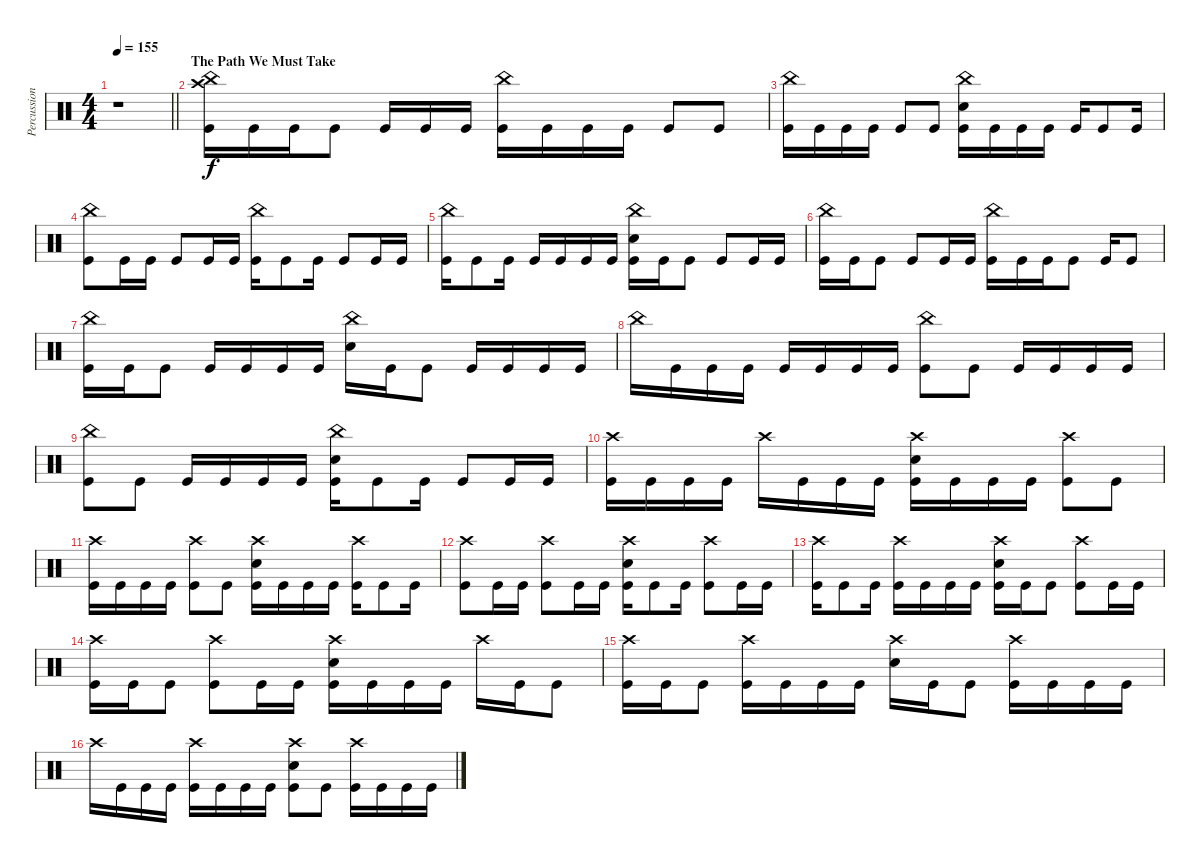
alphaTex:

\track ("Percussion" "Percussion") {instrument percussion}
\staff {score}
\articulation defaults
\ts (4 4)
\tempo 155
\clef neutral
\barLineRight lightlight
\ks c
r.1{dy f} |
\section ("" "The Path We Must Take")
("Crash high (hit)" "China (hit)" "Kick (hit)").16 "Kick (hit)".16 "Kick (hit)".16 "Kick (hit)".8 "Kick (hit)".16 "Kick (hit)".16 "Kick (hit)".16 ("China (hit)" "Kick (hit)").16 "Kick (hit)".16 "Kick (hit)".16 "Kick (hit)".16 "Kick (hit)".8 "Kick (hit)".8 |
("China (hit)" "Kick (hit)").16 "Kick (hit)".16 "Kick (hit)".16 "Kick (hit)".16 "Kick (hit)".8 "Kick (hit)".8 ("China (hit)" "Electric Snare (hit)" "Kick (hit)").16 "Kick (hit)".16 "Kick (hit)".16 "Kick (hit)".16 "Kick (hit)".16 "Kick (hit)".8 "Kick (hit)".16 |
("China (hit)" "Kick (hit)").8 "Kick (hit)".16 "Kick (hit)".16 "Kick (hit)".8 "Kick (hit)".16 "Kick (hit)".16 ("China (hit)" "Kick (hit)").16 "Kick (hit)".8 "Kick (hit)".16 "Kick (hit)".8 "Kick (hit)".16 "Kick (hit)".16 |
("China (hit)" "Kick (hit)").16 "Kick (hit)".8 "Kick (hit)".16 "Kick (hit)".16 "Kick (hit)".16 "Kick (hit)".16 "Kick (hit)".16 ("China (hit)" "Electric Snare (hit)" "Kick (hit)").16 "Kick (hit)".16 "Kick (hit)".8 "Kick (hit)".8 "Kick (hit)".16 "Kick (hit)".16 |
("China (hit)" "Kick (hit)").16 "Kick (hit)".16 "Kick (hit)".8 "Kick (hit)".8 "Kick (hit)".16 "Kick (hit)".16 ("China (hit)" "Kick (hit)").16 "Kick (hit)".16 "Kick (hit)".16 "Kick (hit)".8 "Kick (hit)".16 "Kick (hit)".8 |
("China (hit)" "Kick (hit)").16 "Kick (hit)".16 "Kick (hit)".8 "Kick (hit)".16 "Kick (hit)".16 "Kick (hit)".16 "Kick (hit)".16 ("China (hit)" "Electric Snare (hit)").16 "Kick (hit)".16 "Kick (hit)".8 "Kick (hit)".16 "Kick (hit)".16 "Kick (hit)".16 "Kick (hit)".16 |
"China (hit)".16 "Kick (hit)".16 "Kick (hit)".16 "Kick (hit)".16 "Kick (hit)".16 "Kick (hit)".16 "Kick (hit)".16 "Kick (hit)".16 ("China (hit)" "Kick (hit)").8 "Kick (hit)".8 "Kick (hit)".16 "Kick (hit)".16 "Kick (hit)".16 "Kick (hit)".16 |
("China (hit)" "Kick (hit)").8 "Kick (hit)".8 "Kick (hit)".16 "Kick (hit)".16 "Kick (hit)".16 "Kick (hit)".16 ("China (hit)" "Electric Snare (hit)" "Kick (hit)").16 "Kick (hit)".8 "Kick (hit)".16 "Kick (hit)".8 "Kick (hit)".16 "Kick (hit)".16 |
("Crash high (hit)" "Kick (hit)").16 "Kick (hit)".16 "Kick (hit)".16 "Kick (hit)".16 "Crash high (hit)".16 "Kick (hit)".16 "Kick (hit)".16 "Kick (hit)".16 ("Crash high (hit)" "Electric Snare (hit)" "Kick (hit)").16 "Kick (hit)".16 "Kick (hit)".16 "Kick (hit)".16 ("Crash high (hit)" "Kick (hit)").8 "Kick (hit)".8 |
("Crash high (hit)" "Kick (hit)").16 "Kick (hit)".16 "Kick (hit)".16 "Kick (hit)".16 ("Crash high (hit)" "Kick (hit)").8 "Kick (hit)".8 ("Crash high (hit)" "Electric Snare (hit)" "Kick (hit)").16 "Kick (hit)".16 "Kick (hit)".16 "Kick (hit)".16 ("Crash high (hit)" "Kick (hit)").16 "Kick (hit)".8 "Kick (hit)".16 |
("Crash high (hit)" "Kick (hit)").8 "Kick (hit)".16 "Kick (hit)".16 ("Crash high (hit)" "Kick (hit)").8 "Kick (hit)".16 "Kick (hit)".16 ("Crash high (hit)" "Electric Snare (hit)" "Kick (hit)").16 "Kick (hit)".8 "Kick (hit)".16 ("Crash high (hit)" "Kick (hit)").8 "Kick (hit)".16 "Kick (hit)".16 |
("Crash high (hit)" "Kick (hit)").16 "Kick (hit)".8 "Kick (hit)".16 ("Crash high (hit)" "Kick (hit)").16 "Kick (hit)".16 "Kick (hit)".16 "Kick (hit)".16 ("Crash high (hit)" "Electric Snare (hit)" "Kick (hit)").16 "Kick (hit)".16 "Kick (hit)".8 ("Crash high (hit)" "Kick (hit)").8 "Kick (hit)".16 "Kick (hit)".16 |
("Crash high (hit)" "Kick (hit)").16 "Kick (hit)".16 "Kick (hit)".8 ("Crash high (hit)" "Kick (hit)").8 "Kick (hit)".16 "Kick (hit)".16 ("Crash high (hit)" "Electric Snare (hit)" "Kick (hit)").16 "Kick (hit)".16 "Kick (hit)".16 "Kick (hit)".16 "Crash high (hit)".16 "Kick (hit)".16 "Kick (hit)".8 |
("Crash high (hit)" "Kick (hit)").16 "Kick (hit)".16 "Kick (hit)".8 ("Crash high (hit)" "Kick (hit)").16 "Kick (hit)".16 "Kick (hit)".16 "Kick (hit)".16 ("Crash high (hit)" "Electric Snare (hit)").16 "Kick (hit)".16 "Kick (hit)".8 ("Crash high (hit)" "Kick (hit)").16 "Kick (hit)".16 "Kick (hit)".16 "Kick (hit)".16 |
"Crash high (hit)".16 "Kick (hit)".16 "Kick (hit)".16 "Kick (hit)".16 ("Crash high (hit)" "Kick (hit)").16 "Kick (hit)".16 "Kick (hit)".16 "Kick (hit)".16 ("Crash high (hit)" "Electric Snare (hit)" "Kick (hit)").8 "Kick (hit)".8 ("Crash high (hit)" "Kick (hit)").16 "Kick (hit)".16 "Kick (hit)".16 "Kick (hit)".16
